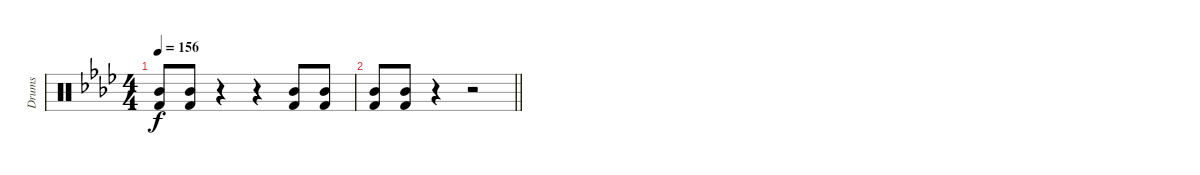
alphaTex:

\track ("Drums" "Drums") {instrument percussion}
\staff {score}
\articulation defaults
\ts (4 4)
\tempo 156
\clef neutral
\ks fminor
("Kick (hit) 2" "Mid Tom (hit)").8{dy f} ("Kick (hit) 2" "Mid Tom (hit)").8 r.4 r.4 ("Mid Tom (hit)" "Kick (hit) 2").8 ("Kick (hit) 2" "Mid Tom (hit)").8 |
\barLineRight lightlight
("Kick (hit) 2" "Mid Tom (hit)").8 ("Kick (hit) 2" "Mid Tom (hit)").8 r.4 r.2
